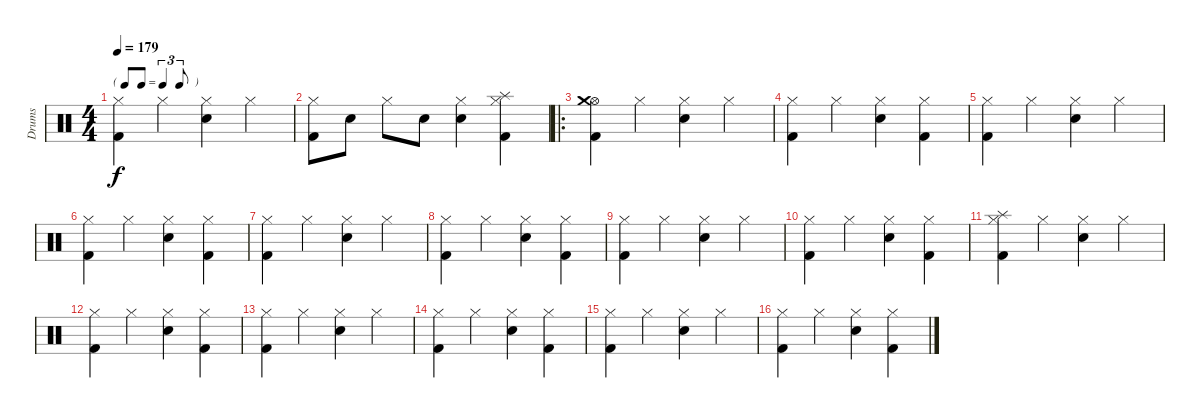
\track ("Drums" "Drums") {instrument percussion}
\staff {score}
\articulation defaults
\ts (4 4)
\tf triplet8th
\tempo 179
\clef neutral
\ks c
("Hi-Hat (closed)" "Kick (hit) 2").4{dy f} "Hi-Hat (closed)".4 ("Hi-Hat (closed)" "Snare (hit) 2").4 "Hi-Hat (closed)".4 |
("Hi-Hat (closed)" "Kick (hit) 2").8 "Snare (hit) 2".8 "Hi-Hat (closed)".8 "Snare (hit) 2".8 ("Hi-Hat (closed)" "Snare (hit) 2").4 ("Hi-Hat (closed)" "Splash (hit)" "Kick (hit) 2").4 |
\ro
("Hi-Hat (open)" "Crash medium (hit)" "Kick (hit) 2").4 "Hi-Hat (closed)".4 ("Hi-Hat (closed)" "Snare (hit) 2").4 "Hi-Hat (closed)".4 |
("Hi-Hat (closed)" "Kick (hit) 2").4 "Hi-Hat (closed)".4 ("Hi-Hat (closed)" "Snare (hit) 2").4 ("Hi-Hat (closed)" "Kick (hit) 2").4 |
("Hi-Hat (closed)" "Kick (hit) 2").4 "Hi-Hat (closed)".4 ("Hi-Hat (closed)" "Snare (hit) 2").4 "Hi-Hat (closed)".4 |
("Hi-Hat (closed)" "Kick (hit) 2").4 "Hi-Hat (closed)".4 ("Hi-Hat (closed)" "Snare (hit) 2").4 ("Hi-Hat (closed)" "Kick (hit) 2").4 |
("Hi-Hat (closed)" "Kick (hit) 2").4 "Hi-Hat (closed)".4 ("Hi-Hat (closed)" "Snare (hit) 2").4 "Hi-Hat (closed)".4 |
("Hi-Hat (closed)" "Kick (hit) 2").4 "Hi-Hat (closed)".4 ("Hi-Hat (closed)" "Snare (hit) 2").4 ("Hi-Hat (closed)" "Kick (hit) 2").4 |
("Hi-Hat (closed)" "Kick (hit) 2").4 "Hi-Hat (closed)".4 ("Hi-Hat (closed)" "Snare (hit) 2").4 "Hi-Hat (closed)".4 |
("Hi-Hat (closed)" "Kick (hit) 2").4 "Hi-Hat (closed)".4 ("Hi-Hat (closed)" "Snare (hit) 2").4 ("Hi-Hat (closed)" "Kick (hit) 2").4 |
("Hi-Hat (closed)" "Splash (hit)" "Kick (hit) 2").4 "Hi-Hat (closed)".4 ("Hi-Hat (closed)" "Snare (hit) 2").4 "Hi-Hat (closed)".4 |
("Hi-Hat (closed)" "Kick (hit) 2").4 "Hi-Hat (closed)".4 ("Hi-Hat (closed)" "Snare (hit) 2").4 ("Hi-Hat (closed)" "Kick (hit) 2").4 |
("Hi-Hat (closed)" "Kick (hit) 2").4 "Hi-Hat (closed)".4 ("Hi-Hat (closed)" "Snare (hit) 2").4 "Hi-Hat (closed)".4 |
("Hi-Hat (closed)" "Kick (hit) 2").4 "Hi-Hat (closed)".4 ("Hi-Hat (closed)" "Snare (hit) 2").4 ("Hi-Hat (closed)" "Kick (hit) 2").4 |
("Hi-Hat (closed)" "Kick (hit) 2").4 "Hi-Hat (closed)".4 ("Hi-Hat (closed)" "Snare (hit) 2").4 "Hi-Hat (closed)".4 |
("Hi-Hat (closed)" "Kick (hit) 2").4 "Hi-Hat (closed)".4 ("Hi-Hat (closed)" "Snare (hit) 2").4 ("Hi-Hat (closed)" "Kick (hit) 2").4
